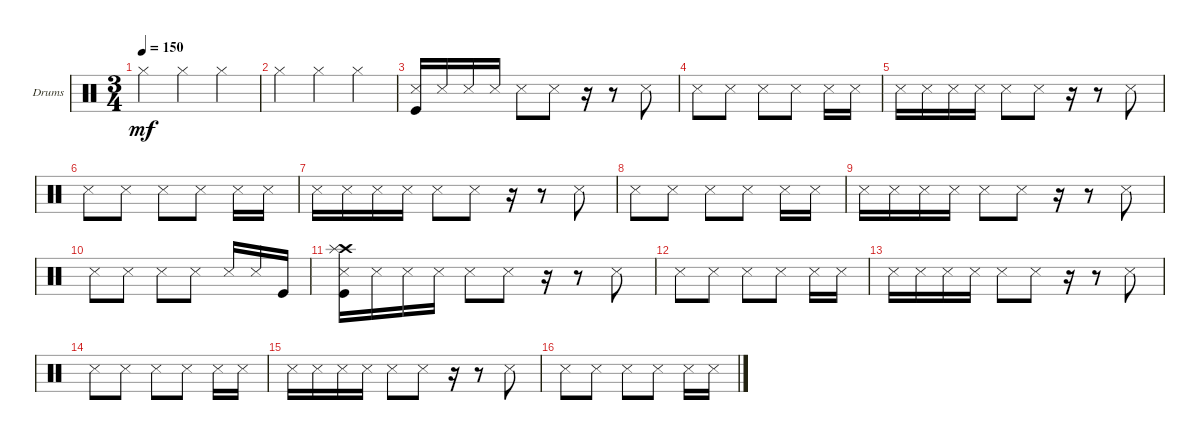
\defaultSystemsLayout 4
\bracketExtendMode groupsimilarinstruments
\firstSystemTrackNameOrientation horizontal
\otherSystemsTrackNameOrientation horizontal
\track ("Scott" "Drums") {instrument percussion}
\staff {score}
\articulation defaults
\ts (3 4)
\tempo 150
\clef neutral
\scale
0.333333
\ks c "Hi-Hat (closed)".4{dy mf} "Hi-Hat (closed)".4 "Hi-Hat (closed)".4
|
\scale
0.333333 "Hi-Hat (closed)".4 "Hi-Hat (closed)".4 "Hi-Hat (closed)".4 |
\scale
0.333333 ("Snare (side stick) 3" "Kick (hit)").16 "Snare (side stick) 3".16 "Snare (side stick) 3".16 "Snare (side stick) 3".16 "Snare (side stick) 3".8 "Snare (side stick) 3".8 r.16 r.8 "Snare (side stick) 3".8 |
\scale
0.333333 "Snare (side stick) 3".8 "Snare (side stick) 3".8 "Snare (side stick) 3".8 "Snare (side stick) 3".8 "Snare (side stick) 3".16 "Snare (side stick) 3".16 |
\scale
0.333333 "Snare (side stick) 3".16 "Snare (side stick) 3".16 "Snare (side stick) 3".16 "Snare (side stick) 3".16 "Snare (side stick) 3".8 "Snare (side stick) 3".8 r.16 r.8 "Snare (side stick) 3".8 |
\scale
0.333333 "Snare (side stick) 3".8 "Snare (side stick) 3".8 "Snare (side stick) 3".8 "Snare (side stick) 3".8 "Snare (side stick) 3".16 "Snare (side stick) 3".16 |
\scale
0.333333 "Snare (side stick) 3".16 "Snare (side stick) 3".16 "Snare (side stick) 3".16 "Snare (side stick) 3".16 "Snare (side stick) 3".8 "Snare (side stick) 3".8 r.16 r.8 "Snare (side stick) 3".8 |
\scale
0.333333 "Snare (side stick) 3".8 "Snare (side stick) 3".8 "Snare (side stick) 3".8 "Snare (side stick) 3".8 "Snare (side stick) 3".16 "Snare (side stick) 3".16 |
\scale
0.333333 "Snare (side stick) 3".16 "Snare (side stick) 3".16 "Snare (side stick) 3".16 "Snare (side stick) 3".16 "Snare (side stick) 3".8 "Snare (side stick) 3".8 r.16 r.8 "Snare (side stick) 3".8 |
\scale
0.333333 "Snare (side stick) 3".8 "Snare (side stick) 3".8 "Snare (side stick) 3".8 "Snare (side stick) 3".8 "Snare (side stick) 3".16 "Snare (side stick) 3".16 "Kick (hit)".16 |
\scale
0.333333 ("Snare (side stick) 3" "Kick (hit)" "Crash high (hit)" "Splash (hit)").16 "Snare (side stick) 3".16 "Snare (side stick) 3".16 "Snare (side stick) 3".16 "Snare (side stick) 3".8 "Snare (side stick) 3".8 r.16 r.8 "Snare (side stick) 3".8 |
\scale
0.333333 "Snare (side stick) 3".8 "Snare (side stick) 3".8 "Snare (side stick) 3".8 "Snare (side stick) 3".8 "Snare (side stick) 3".16 "Snare (side stick) 3".16 |
\scale
0.333333 "Snare (side stick) 3".16 "Snare (side stick) 3".16 "Snare (side stick) 3".16 "Snare (side stick) 3".16 "Snare (side stick) 3".8 "Snare (side stick) 3".8 r.16 r.8 "Snare (side stick) 3".8 |
\scale
0.333333 "Snare (side stick) 3".8 "Snare (side stick) 3".8 "Snare (side stick) 3".8 "Snare (side stick) 3".8 "Snare (side stick) 3".16 "Snare (side stick) 3".16 |
\scale
0.333333 "Snare (side stick) 3".16 "Snare (side stick) 3".16 "Snare (side stick) 3".16 "Snare (side stick) 3".16 "Snare (side stick) 3".8 "Snare (side stick) 3".8 r.16 r.8 "Snare (side stick) 3".8 |
\scale
0.333333 "Snare (side stick) 3".8 "Snare (side stick) 3".8 "Snare (side stick) 3".8 "Snare (side stick) 3".8 "Snare (side stick) 3".16 "Snare (side stick) 3".16
